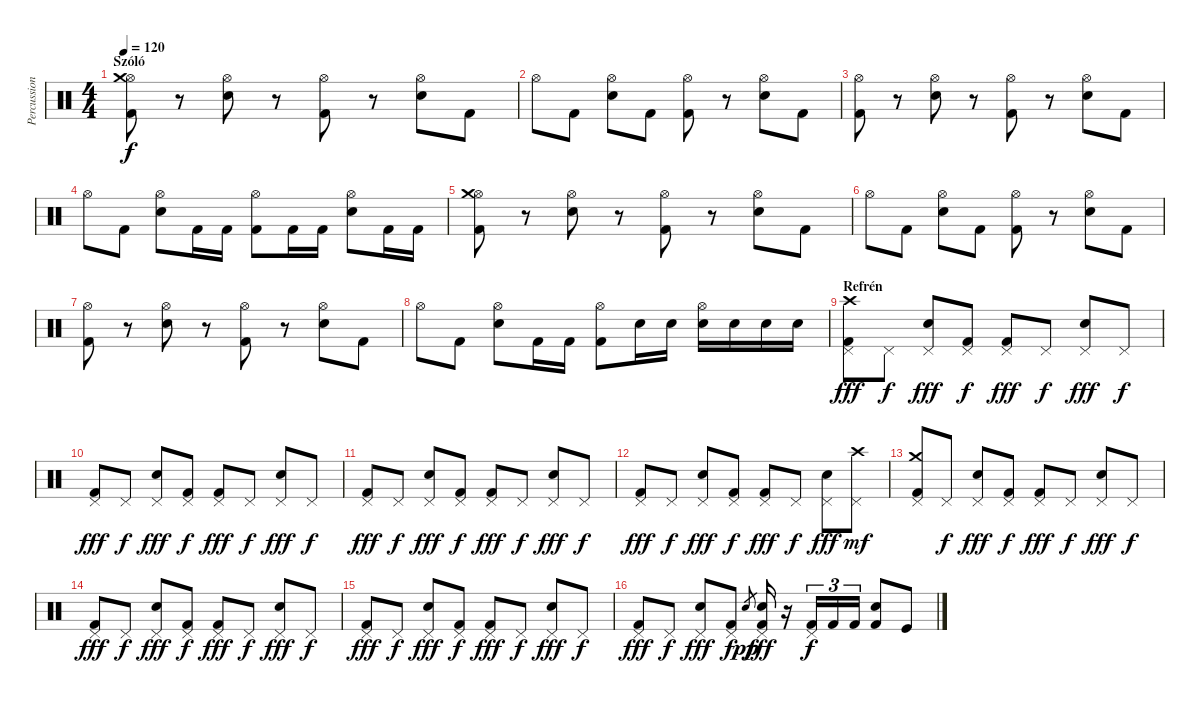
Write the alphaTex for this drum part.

\track ("Percussion" "Percussion") {instrument percussion}
\staff {score}
\articulation defaults
\ts (4 4)
\section ("" "Szóló")
\tempo 120
\clef neutral
\ks c
("Hi-Hat (open)" "Kick (hit) 2" "Crash medium (hit)").8{dy f} r.8 ("Hi-Hat (open)" "Snare (hit) 2").8 r.8 ("Hi-Hat (open)" "Kick (hit) 2").8 r.8 ("Hi-Hat (open)" "Snare (hit) 2").8 "Kick (hit) 2".8 |
"Hi-Hat (open)".8 "Kick (hit) 2".8 ("Hi-Hat (open)" "Snare (hit) 2").8 "Kick (hit) 2".8 ("Hi-Hat (open)" "Kick (hit) 2").8 r.8 ("Hi-Hat (open)" "Snare (hit) 2").8 "Kick (hit) 2".8 |
("Hi-Hat (open)" "Kick (hit) 2").8 r.8 ("Hi-Hat (open)" "Snare (hit) 2").8 r.8 ("Hi-Hat (open)" "Kick (hit) 2").8 r.8 ("Hi-Hat (open)" "Snare (hit) 2").8 "Kick (hit) 2".8 |
"Hi-Hat (open)".8 "Kick (hit) 2".8 ("Hi-Hat (open)" "Snare (hit) 2").8 "Kick (hit) 2".16 "Kick (hit) 2".16 ("Hi-Hat (open)" "Kick (hit) 2").8 "Kick (hit) 2".16 "Kick (hit) 2".16 ("Hi-Hat (open)" "Snare (hit) 2").8 "Kick (hit) 2".16 "Kick (hit) 2".16 |
("Hi-Hat (open)" "Kick (hit) 2" "Crash medium (hit)").8 r.8 ("Hi-Hat (open)" "Snare (hit) 2").8 r.8 ("Hi-Hat (open)" "Kick (hit) 2").8 r.8 ("Hi-Hat (open)" "Snare (hit) 2").8 "Kick (hit) 2".8 |
"Hi-Hat (open)".8 "Kick (hit) 2".8 ("Hi-Hat (open)" "Snare (hit) 2").8 "Kick (hit) 2".8 ("Hi-Hat (open)" "Kick (hit) 2").8 r.8 ("Hi-Hat (open)" "Snare (hit) 2").8 "Kick (hit) 2".8 |
("Hi-Hat (open)" "Kick (hit) 2").8 r.8 ("Hi-Hat (open)" "Snare (hit) 2").8 r.8 ("Hi-Hat (open)" "Kick (hit) 2").8 r.8 ("Hi-Hat (open)" "Snare (hit) 2").8 "Kick (hit) 2".8 |
"Hi-Hat (open)".8 "Kick (hit) 2".8 ("Hi-Hat (open)" "Snare (hit) 2").8 "Kick (hit) 2".16 "Kick (hit) 2".16 ("Hi-Hat (open)" "Kick (hit) 2").8 "Snare (hit) 2".16 "Snare (hit) 2".16 ("Hi-Hat (open)" "Snare (hit) 2").16 "Snare (hit) 2".16 "Snare (hit) 2".16 "Snare (hit) 2".16 |
\section ("" "Refrén")
("Pedal Hi-Hat (hit)" "Kick (hit) 2" "Crash high (hit)").8{dy fff} "Pedal Hi-Hat (hit)".8{dy f} ("Pedal Hi-Hat (hit)" "Snare (hit) 2").8{dy fff} ("Pedal Hi-Hat (hit)" "Kick (hit) 2").8{dy f} ("Pedal Hi-Hat (hit)" "Kick (hit) 2").8{dy fff} "Pedal Hi-Hat (hit)".8{dy f} ("Pedal Hi-Hat (hit)" "Snare (hit) 2").8{dy fff} "Pedal Hi-Hat (hit)".8{dy f} |
("Pedal Hi-Hat (hit)" "Kick (hit) 2").8{dy fff} "Pedal Hi-Hat (hit)".8{dy f} ("Pedal Hi-Hat (hit)" "Snare (hit) 2").8{dy fff} ("Pedal Hi-Hat (hit)" "Kick (hit) 2").8{dy f} ("Pedal Hi-Hat (hit)" "Kick (hit) 2").8{dy fff} "Pedal Hi-Hat (hit)".8{dy f} ("Pedal Hi-Hat (hit)" "Snare (hit) 2").8{dy fff} "Pedal Hi-Hat (hit)".8{dy f} |
("Pedal Hi-Hat (hit)" "Kick (hit) 2").8{dy fff} "Pedal Hi-Hat (hit)".8{dy f} ("Pedal Hi-Hat (hit)" "Snare (hit) 2").8{dy fff} ("Pedal Hi-Hat (hit)" "Kick (hit) 2").8{dy f} ("Pedal Hi-Hat (hit)" "Kick (hit) 2").8{dy fff} "Pedal Hi-Hat (hit)".8{dy f} ("Pedal Hi-Hat (hit)" "Snare (hit) 2").8{dy fff} "Pedal Hi-Hat (hit)".8{dy f} |
("Pedal Hi-Hat (hit)" "Kick (hit) 2").8{dy fff} "Pedal Hi-Hat (hit)".8{dy f} ("Pedal Hi-Hat (hit)" "Snare (hit) 2").8{dy fff} ("Pedal Hi-Hat (hit)" "Kick (hit) 2").8{dy f} ("Pedal Hi-Hat (hit)" "Kick (hit) 2").8{dy fff} "Pedal Hi-Hat (hit)".8{dy f} ("Pedal Hi-Hat (hit)" "Snare (hit) 2").8{dy fff} ("Pedal Hi-Hat (hit)" "Crash high (hit)").8{dy mf} |
("Pedal Hi-Hat (hit)" "Kick (hit) 2" "Crash medium (hit)").8 "Pedal Hi-Hat (hit)".8{dy f} ("Pedal Hi-Hat (hit)" "Snare (hit) 2").8{dy fff} ("Pedal Hi-Hat (hit)" "Kick (hit) 2").8{dy f} ("Pedal Hi-Hat (hit)" "Kick (hit) 2").8{dy fff} "Pedal Hi-Hat (hit)".8{dy f} ("Pedal Hi-Hat (hit)" "Snare (hit) 2").8{dy fff} "Pedal Hi-Hat (hit)".8{dy f} |
("Pedal Hi-Hat (hit)" "Kick (hit) 2").8{dy fff} "Pedal Hi-Hat (hit)".8{dy f} ("Pedal Hi-Hat (hit)" "Snare (hit) 2").8{dy fff} ("Pedal Hi-Hat (hit)" "Kick (hit) 2").8{dy f} ("Pedal Hi-Hat (hit)" "Kick (hit) 2").8{dy fff} "Pedal Hi-Hat (hit)".8{dy f} ("Pedal Hi-Hat (hit)" "Snare (hit) 2").8{dy fff} "Pedal Hi-Hat (hit)".8{dy f} |
("Pedal Hi-Hat (hit)" "Kick (hit) 2").8{dy fff} "Pedal Hi-Hat (hit)".8{dy f} ("Pedal Hi-Hat (hit)" "Snare (hit) 2").8{dy fff} ("Pedal Hi-Hat (hit)" "Kick (hit) 2").8{dy f} ("Pedal Hi-Hat (hit)" "Kick (hit) 2").8{dy fff} "Pedal Hi-Hat (hit)".8{dy f} ("Pedal Hi-Hat (hit)" "Snare (hit) 2").8{dy fff} "Pedal Hi-Hat (hit)".8{dy f} |
("Pedal Hi-Hat (hit)" "Kick (hit) 2").8{dy fff} "Pedal Hi-Hat (hit)".8{dy f} ("Pedal Hi-Hat (hit)" "Snare (hit) 2").8{dy fff} ("Pedal Hi-Hat (hit)" "Kick (hit) 2").8{dy f} "Snare (hit) 2".8{gr dy pp} ("Pedal Hi-Hat (hit)" "Kick (hit) 2" "Snare (hit) 2").16{dy fff} r.16 ("Pedal Hi-Hat (hit)" "Kick (hit) 2").16{tu (3 2) dy f} "Kick (hit) 2".16{tu (3 2)} "Kick (hit) 2".16{tu (3 2)} ("Kick (hit) 2" "Snare (hit) 2").8 "Kick (hit)".8
